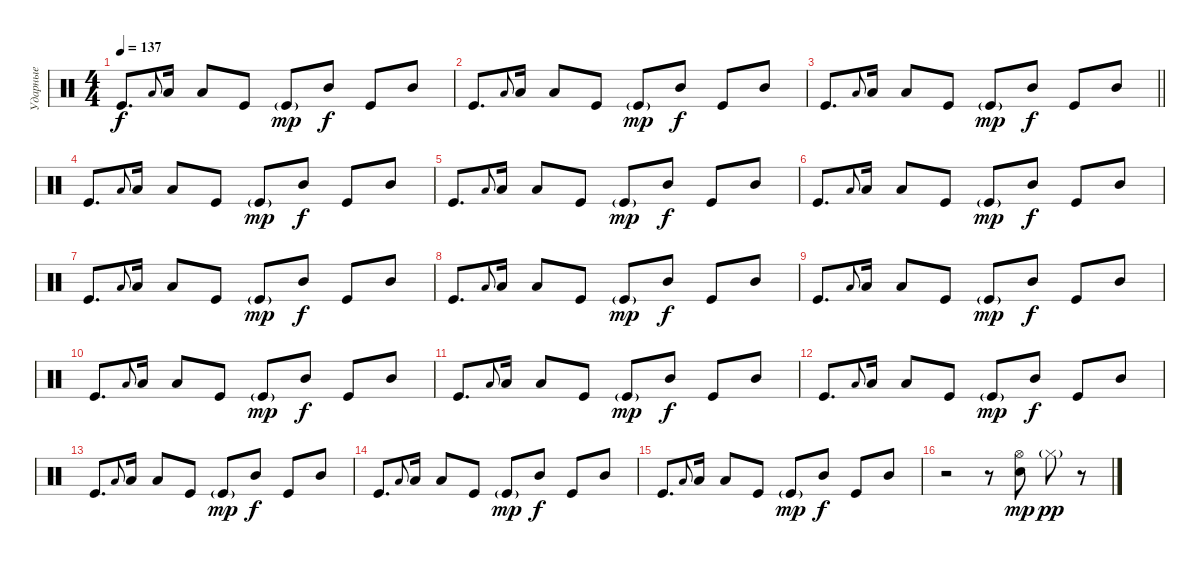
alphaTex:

\track ("Ударные" "Ударные") {instrument percussion}
\staff {score}
\articulation defaults
\ts (4 4)
\tempo 137
\clef neutral
\ks c "Kick (hit)".8{d dy f} "Low Tom (hit)"{x}.8{gr onbeat} "Low Tom (hit)".16 "Low Tom (hit)".8 "Kick (hit)".8 "Kick (hit)"{g}.8{dy mp} "Mid Tom (hit)".8{dy f} "Kick (hit)".8 "Mid Tom (hit)".8
|
"Kick (hit)".8{d} "Low Tom (hit)"{x}.8{gr onbeat} "Low Tom (hit)".16 "Low Tom (hit)".8 "Kick (hit)".8 "Kick (hit)"{g}.8{dy mp} "Mid Tom (hit)".8{dy f} "Kick (hit)".8 "Mid Tom (hit)".8 |
\barLineRight lightlight "Kick (hit)".8{d} "Low Tom (hit)"{x}.8{gr onbeat} "Low Tom (hit)".16 "Low Tom (hit)".8 "Kick (hit)".8 "Kick (hit)"{g}.8{dy mp} "Mid Tom (hit)".8{dy f} "Kick (hit)".8 "Mid Tom (hit)".8
|
"Kick (hit)".8{d} "Low Tom (hit)"{x}.8{gr onbeat} "Low Tom (hit)".16 "Low Tom (hit)".8 "Kick (hit)".8 "Kick (hit)"{g}.8{dy mp} "Mid Tom (hit)".8{dy f} "Kick (hit)".8 "Mid Tom (hit)".8 |
"Kick (hit)".8{d} "Low Tom (hit)"{x}.8{gr onbeat} "Low Tom (hit)".16 "Low Tom (hit)".8 "Kick (hit)".8 "Kick (hit)"{g}.8{dy mp} "Mid Tom (hit)".8{dy f} "Kick (hit)".8 "Mid Tom (hit)".8 |
"Kick (hit)".8{d} "Low Tom (hit)"{x}.8{gr onbeat} "Low Tom (hit)".16 "Low Tom (hit)".8 "Kick (hit)".8 "Kick (hit)"{g}.8{dy mp} "Mid Tom (hit)".8{dy f} "Kick (hit)".8 "Mid Tom (hit)".8 |
"Kick (hit)".8{d} "Low Tom (hit)"{x}.8{gr onbeat} "Low Tom (hit)".16 "Low Tom (hit)".8 "Kick (hit)".8 "Kick (hit)"{g}.8{dy mp} "Mid Tom (hit)".8{dy f} "Kick (hit)".8 "Mid Tom (hit)".8 |
"Kick (hit)".8{d} "Low Tom (hit)"{x}.8{gr onbeat} "Low Tom (hit)".16 "Low Tom (hit)".8 "Kick (hit)".8 "Kick (hit)"{g}.8{dy mp} "Mid Tom (hit)".8{dy f} "Kick (hit)".8 "Mid Tom (hit)".8 |
"Kick (hit)".8{d} "Low Tom (hit)"{x}.8{gr onbeat} "Low Tom (hit)".16 "Low Tom (hit)".8 "Kick (hit)".8 "Kick (hit)"{g}.8{dy mp} "Mid Tom (hit)".8{dy f} "Kick (hit)".8 "Mid Tom (hit)".8 |
"Kick (hit)".8{d} "Low Tom (hit)"{x}.8{gr onbeat} "Low Tom (hit)".16 "Low Tom (hit)".8 "Kick (hit)".8 "Kick (hit)"{g}.8{dy mp} "Mid Tom (hit)".8{dy f} "Kick (hit)".8 "Mid Tom (hit)".8 |
"Kick (hit)".8{d} "Low Tom (hit)"{x}.8{gr onbeat} "Low Tom (hit)".16 "Low Tom (hit)".8 "Kick (hit)".8 "Kick (hit)"{g}.8{dy mp} "Mid Tom (hit)".8{dy f} "Kick (hit)".8 "Mid Tom (hit)".8 |
"Kick (hit)".8{d} "Low Tom (hit)"{x}.8{gr onbeat} "Low Tom (hit)".16 "Low Tom (hit)".8 "Kick (hit)".8 "Kick (hit)"{g}.8{dy mp} "Mid Tom (hit)".8{dy f} "Kick (hit)".8 "Mid Tom (hit)".8 |
"Kick (hit)".8{d} "Low Tom (hit)"{x}.8{gr onbeat} "Low Tom (hit)".16 "Low Tom (hit)".8 "Kick (hit)".8 "Kick (hit)"{g}.8{dy mp} "Mid Tom (hit)".8{dy f} "Kick (hit)".8 "Mid Tom (hit)".8 |
"Kick (hit)".8{d} "Low Tom (hit)"{x}.8{gr onbeat} "Low Tom (hit)".16 "Low Tom (hit)".8 "Kick (hit)".8 "Kick (hit)"{g}.8{dy mp} "Mid Tom (hit)".8{dy f} "Kick (hit)".8 "Mid Tom (hit)".8 |
"Kick (hit)".8{d} "Low Tom (hit)"{x}.8{gr onbeat} "Low Tom (hit)".16 "Low Tom (hit)".8 "Kick (hit)".8 "Kick (hit)"{g}.8{dy mp} "Mid Tom (hit)".8{dy f} "Kick (hit)".8 "Mid Tom (hit)".8 |
r.2 r.8 ("Hi-Hat (open)" "Electric Snare (hit)").8{dy mp} "Hi-Hat (closed)"{g}.8{dy pp} r.8
